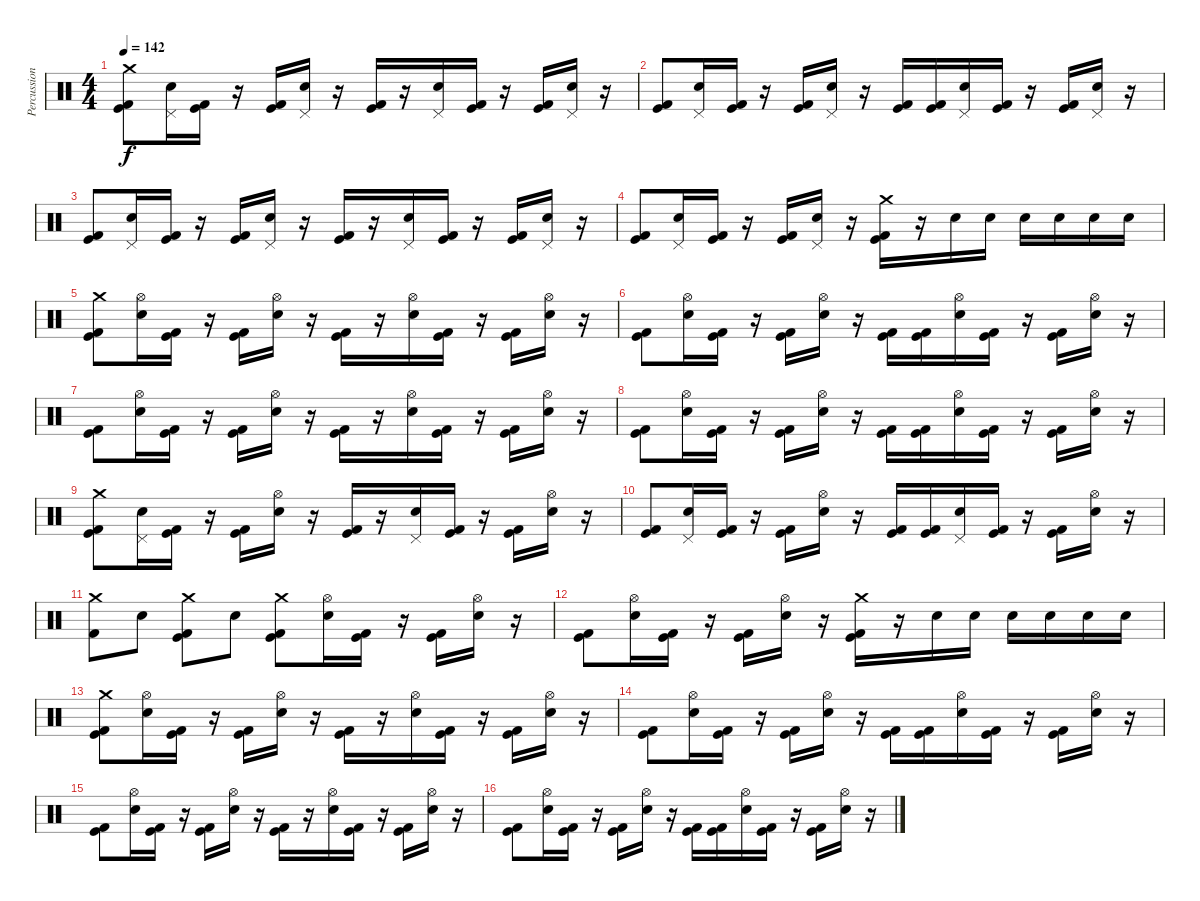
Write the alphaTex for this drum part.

\track ("Percussions" "Percussion") {instrument percussion}
\staff {score}
\articulation defaults
\ts (4 4)
\tempo 142
\clef neutral
\ks c
("Crash medium (hit)" "Kick (hit)" "Kick (hit) 2").8{dy f} ("Pedal Hi-Hat (hit)" "Electric Snare (hit)").16 ("Kick (hit)" "Kick (hit) 2").16 r.16 ("Kick (hit)" "Kick (hit) 2").16 ("Pedal Hi-Hat (hit)" "Electric Snare (hit)").16 r.16 ("Kick (hit)" "Kick (hit) 2").16 r.16 ("Pedal Hi-Hat (hit)" "Electric Snare (hit)").16 ("Kick (hit)" "Kick (hit) 2").16 r.16 ("Kick (hit)" "Kick (hit) 2").16 ("Pedal Hi-Hat (hit)" "Electric Snare (hit)").16 r.16 |
("Kick (hit)" "Kick (hit) 2").8 ("Pedal Hi-Hat (hit)" "Electric Snare (hit)").16 ("Kick (hit)" "Kick (hit) 2").16 r.16 ("Kick (hit)" "Kick (hit) 2").16 ("Pedal Hi-Hat (hit)" "Electric Snare (hit)").16 r.16 ("Kick (hit)" "Kick (hit) 2").16 ("Kick (hit)" "Kick (hit) 2").16 ("Pedal Hi-Hat (hit)" "Electric Snare (hit)").16 ("Kick (hit)" "Kick (hit) 2").16 r.16 ("Kick (hit)" "Kick (hit) 2").16 ("Pedal Hi-Hat (hit)" "Electric Snare (hit)").16 r.16 |
("Kick (hit)" "Kick (hit) 2").8 ("Pedal Hi-Hat (hit)" "Electric Snare (hit)").16 ("Kick (hit)" "Kick (hit) 2").16 r.16 ("Kick (hit)" "Kick (hit) 2").16 ("Pedal Hi-Hat (hit)" "Electric Snare (hit)").16 r.16 ("Kick (hit)" "Kick (hit) 2").16 r.16 ("Pedal Hi-Hat (hit)" "Electric Snare (hit)").16 ("Kick (hit)" "Kick (hit) 2").16 r.16 ("Kick (hit)" "Kick (hit) 2").16 ("Pedal Hi-Hat (hit)" "Electric Snare (hit)").16 r.16 |
("Kick (hit)" "Kick (hit) 2").8 ("Pedal Hi-Hat (hit)" "Electric Snare (hit)").16 ("Kick (hit)" "Kick (hit) 2").16 r.16 ("Kick (hit)" "Kick (hit) 2").16 ("Pedal Hi-Hat (hit)" "Electric Snare (hit)").16 r.16 ("Crash medium (hit)" "Kick (hit)" "Kick (hit) 2").16 r.16 "Electric Snare (hit)".16 "Electric Snare (hit)".16 "Electric Snare (hit)".16 "Electric Snare (hit)".16 "Electric Snare (hit)".16 "Electric Snare (hit)".16 |
("Crash medium (hit)" "Kick (hit)" "Kick (hit) 2").8 ("Hi-Hat (open)" "Electric Snare (hit)").16 ("Kick (hit)" "Kick (hit) 2").16 r.16 ("Kick (hit)" "Kick (hit) 2").16 ("Hi-Hat (open)" "Electric Snare (hit)").16 r.16 ("Kick (hit)" "Kick (hit) 2").16 r.16 ("Hi-Hat (open)" "Electric Snare (hit)").16 ("Kick (hit)" "Kick (hit) 2").16 r.16 ("Kick (hit)" "Kick (hit) 2").16 ("Hi-Hat (open)" "Electric Snare (hit)").16 r.16 |
("Kick (hit)" "Kick (hit) 2").8 ("Hi-Hat (open)" "Electric Snare (hit)").16 ("Kick (hit)" "Kick (hit) 2").16 r.16 ("Kick (hit)" "Kick (hit) 2").16 ("Hi-Hat (open)" "Electric Snare (hit)").16 r.16 ("Kick (hit)" "Kick (hit) 2").16 ("Kick (hit)" "Kick (hit) 2").16 ("Hi-Hat (open)" "Electric Snare (hit)").16 ("Kick (hit)" "Kick (hit) 2").16 r.16 ("Kick (hit)" "Kick (hit) 2").16 ("Hi-Hat (open)" "Electric Snare (hit)").16 r.16 |
("Kick (hit)" "Kick (hit) 2").8 ("Hi-Hat (open)" "Electric Snare (hit)").16 ("Kick (hit)" "Kick (hit) 2").16 r.16 ("Kick (hit)" "Kick (hit) 2").16 ("Hi-Hat (open)" "Electric Snare (hit)").16 r.16 ("Kick (hit)" "Kick (hit) 2").16 r.16 ("Hi-Hat (open)" "Electric Snare (hit)").16 ("Kick (hit)" "Kick (hit) 2").16 r.16 ("Kick (hit)" "Kick (hit) 2").16 ("Hi-Hat (open)" "Electric Snare (hit)").16 r.16 |
("Kick (hit)" "Kick (hit) 2").8 ("Hi-Hat (open)" "Electric Snare (hit)").16 ("Kick (hit)" "Kick (hit) 2").16 r.16 ("Kick (hit)" "Kick (hit) 2").16 ("Hi-Hat (open)" "Electric Snare (hit)").16 r.16 ("Kick (hit)" "Kick (hit) 2").16 ("Kick (hit)" "Kick (hit) 2").16 ("Hi-Hat (open)" "Electric Snare (hit)").16 ("Kick (hit)" "Kick (hit) 2").16 r.16 ("Kick (hit)" "Kick (hit) 2").16 ("Hi-Hat (open)" "Electric Snare (hit)").16 r.16 |
("Crash medium (hit)" "Kick (hit)" "Kick (hit) 2").8 ("Pedal Hi-Hat (hit)" "Electric Snare (hit)").16 ("Kick (hit)" "Kick (hit) 2").16 r.16 ("Kick (hit)" "Kick (hit) 2").16 ("Hi-Hat (open)" "Electric Snare (hit)").16 r.16 ("Kick (hit)" "Kick (hit) 2").16 r.16 ("Pedal Hi-Hat (hit)" "Electric Snare (hit)").16 ("Kick (hit)" "Kick (hit) 2").16 r.16 ("Kick (hit)" "Kick (hit) 2").16 ("Hi-Hat (open)" "Electric Snare (hit)").16 r.16 |
("Kick (hit)" "Kick (hit) 2").8 ("Pedal Hi-Hat (hit)" "Electric Snare (hit)").16 ("Kick (hit)" "Kick (hit) 2").16 r.16 ("Kick (hit)" "Kick (hit) 2").16 ("Hi-Hat (open)" "Electric Snare (hit)").16 r.16 ("Kick (hit)" "Kick (hit) 2").16 ("Kick (hit)" "Kick (hit) 2").16 ("Pedal Hi-Hat (hit)" "Electric Snare (hit)").16 ("Kick (hit)" "Kick (hit) 2").16 r.16 ("Kick (hit)" "Kick (hit) 2").16 ("Hi-Hat (open)" "Electric Snare (hit)").16 r.16 |
("Crash medium (hit)" "Kick (hit) 2").8 "Electric Snare (hit)".8 ("Crash medium (hit)" "Kick (hit)" "Kick (hit) 2").8 "Electric Snare (hit)".8 ("Crash medium (hit)" "Kick (hit)" "Kick (hit) 2").8 ("Hi-Hat (open)" "Electric Snare (hit)").16 ("Kick (hit)" "Kick (hit) 2").16 r.16 ("Kick (hit)" "Kick (hit) 2").16 ("Hi-Hat (open)" "Electric Snare (hit)").16 r.16 |
("Kick (hit)" "Kick (hit) 2").8 ("Hi-Hat (open)" "Electric Snare (hit)").16 ("Kick (hit)" "Kick (hit) 2").16 r.16 ("Kick (hit)" "Kick (hit) 2").16 ("Hi-Hat (open)" "Electric Snare (hit)").16 r.16 ("Crash medium (hit)" "Kick (hit)" "Kick (hit) 2").16 r.16 "Electric Snare (hit)".16 "Electric Snare (hit)".16 "Electric Snare (hit)".16 "Electric Snare (hit)".16 "Electric Snare (hit)".16 "Electric Snare (hit)".16 |
("Crash medium (hit)" "Kick (hit)" "Kick (hit) 2").8 ("Hi-Hat (open)" "Electric Snare (hit)").16 ("Kick (hit)" "Kick (hit) 2").16 r.16 ("Kick (hit)" "Kick (hit) 2").16 ("Hi-Hat (open)" "Electric Snare (hit)").16 r.16 ("Kick (hit)" "Kick (hit) 2").16 r.16 ("Hi-Hat (open)" "Electric Snare (hit)").16 ("Kick (hit)" "Kick (hit) 2").16 r.16 ("Kick (hit)" "Kick (hit) 2").16 ("Hi-Hat (open)" "Electric Snare (hit)").16 r.16 |
("Kick (hit)" "Kick (hit) 2").8 ("Hi-Hat (open)" "Electric Snare (hit)").16 ("Kick (hit)" "Kick (hit) 2").16 r.16 ("Kick (hit)" "Kick (hit) 2").16 ("Hi-Hat (open)" "Electric Snare (hit)").16 r.16 ("Kick (hit)" "Kick (hit) 2").16 ("Kick (hit)" "Kick (hit) 2").16 ("Hi-Hat (open)" "Electric Snare (hit)").16 ("Kick (hit)" "Kick (hit) 2").16 r.16 ("Kick (hit)" "Kick (hit) 2").16 ("Hi-Hat (open)" "Electric Snare (hit)").16 r.16 |
("Kick (hit)" "Kick (hit) 2").8 ("Hi-Hat (open)" "Electric Snare (hit)").16 ("Kick (hit)" "Kick (hit) 2").16 r.16 ("Kick (hit)" "Kick (hit) 2").16 ("Hi-Hat (open)" "Electric Snare (hit)").16 r.16 ("Kick (hit)" "Kick (hit) 2").16 r.16 ("Hi-Hat (open)" "Electric Snare (hit)").16 ("Kick (hit)" "Kick (hit) 2").16 r.16 ("Kick (hit)" "Kick (hit) 2").16 ("Hi-Hat (open)" "Electric Snare (hit)").16 r.16 |
("Kick (hit)" "Kick (hit) 2").8 ("Hi-Hat (open)" "Electric Snare (hit)").16 ("Kick (hit)" "Kick (hit) 2").16 r.16 ("Kick (hit)" "Kick (hit) 2").16 ("Hi-Hat (open)" "Electric Snare (hit)").16 r.16 ("Kick (hit)" "Kick (hit) 2").16 ("Kick (hit)" "Kick (hit) 2").16 ("Hi-Hat (open)" "Electric Snare (hit)").16 ("Kick (hit)" "Kick (hit) 2").16 r.16 ("Kick (hit)" "Kick (hit) 2").16 ("Hi-Hat (open)" "Electric Snare (hit)").16 r.16
